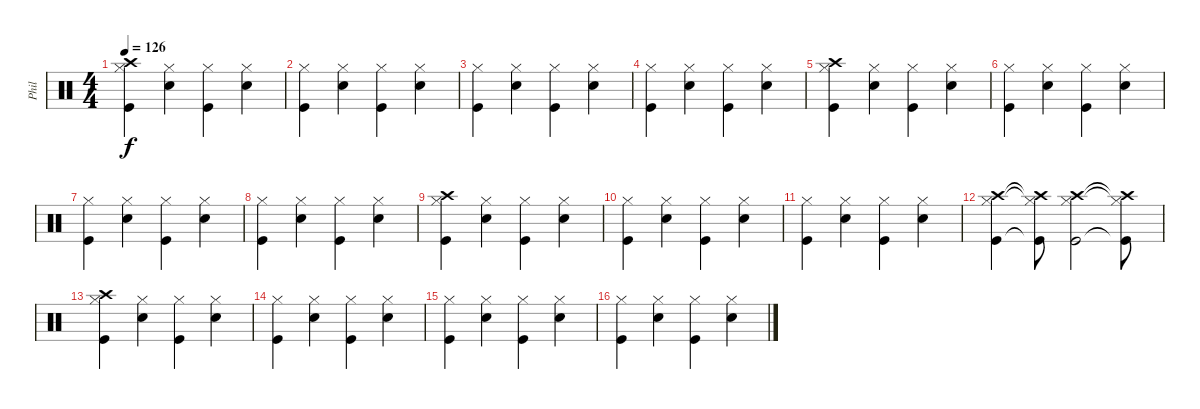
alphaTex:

\track ("Phil" "Phil") {instrument percussion}
\staff {score}
\articulation defaults
\ts (4 4)
\tempo 126
\clef neutral
\ks c
("Hi-Hat (closed)" "Crash high (hit)" "Kick (hit)").4{dy f} ("Hi-Hat (closed)" "Snare (hit) 2").4 ("Hi-Hat (closed)" "Kick (hit)").4 ("Hi-Hat (closed)" "Snare (hit) 2").4 |
("Hi-Hat (closed)" "Kick (hit)").4 ("Hi-Hat (closed)" "Snare (hit) 2").4 ("Hi-Hat (closed)" "Kick (hit)").4 ("Hi-Hat (closed)" "Snare (hit) 2").4 |
("Hi-Hat (closed)" "Kick (hit)").4 ("Hi-Hat (closed)" "Snare (hit) 2").4 ("Hi-Hat (closed)" "Kick (hit)").4 ("Hi-Hat (closed)" "Snare (hit) 2").4 |
("Hi-Hat (closed)" "Kick (hit)").4 ("Hi-Hat (closed)" "Snare (hit) 2").4 ("Hi-Hat (closed)" "Kick (hit)").4 ("Hi-Hat (closed)" "Snare (hit) 2").4 |
("Hi-Hat (closed)" "Crash high (hit)" "Kick (hit)").4 ("Hi-Hat (closed)" "Snare (hit) 2").4 ("Hi-Hat (closed)" "Kick (hit)").4 ("Hi-Hat (closed)" "Snare (hit) 2").4 |
("Hi-Hat (closed)" "Kick (hit)").4 ("Hi-Hat (closed)" "Snare (hit) 2").4 ("Hi-Hat (closed)" "Kick (hit)").4 ("Hi-Hat (closed)" "Snare (hit) 2").4 |
("Hi-Hat (closed)" "Kick (hit)").4 ("Hi-Hat (closed)" "Snare (hit) 2").4 ("Hi-Hat (closed)" "Kick (hit)").4 ("Hi-Hat (closed)" "Snare (hit) 2").4 |
("Hi-Hat (closed)" "Kick (hit)").4 ("Hi-Hat (closed)" "Snare (hit) 2").4 ("Hi-Hat (closed)" "Kick (hit)").4 ("Hi-Hat (closed)" "Snare (hit) 2").4 |
("Hi-Hat (closed)" "Crash high (hit)" "Kick (hit)").4 ("Hi-Hat (closed)" "Snare (hit) 2").4 ("Hi-Hat (closed)" "Kick (hit)").4 ("Hi-Hat (closed)" "Snare (hit) 2").4 |
("Hi-Hat (closed)" "Kick (hit)").4 ("Hi-Hat (closed)" "Snare (hit) 2").4 ("Hi-Hat (closed)" "Kick (hit)").4 ("Hi-Hat (closed)" "Snare (hit) 2").4 |
("Hi-Hat (closed)" "Kick (hit)").4 ("Hi-Hat (closed)" "Snare (hit) 2").4 ("Hi-Hat (closed)" "Kick (hit)").4 ("Hi-Hat (closed)" "Snare (hit) 2").4 |
("Hi-Hat (closed)" "Crash high (hit)" "Kick (hit)").4 ("Hi-Hat (closed)"{t} "Crash high (hit)"{t} "Kick (hit)"{t}).8 ("Hi-Hat (closed)" "Crash high (hit)" "Kick (hit)").2 ("Hi-Hat (closed)"{t} "Crash high (hit)"{t} "Kick (hit)"{t}).8 |
("Hi-Hat (closed)" "Crash high (hit)" "Kick (hit)").4 ("Hi-Hat (closed)" "Snare (hit) 2").4 ("Hi-Hat (closed)" "Kick (hit)").4 ("Hi-Hat (closed)" "Snare (hit) 2").4 |
("Hi-Hat (closed)" "Kick (hit)").4 ("Hi-Hat (closed)" "Snare (hit) 2").4 ("Hi-Hat (closed)" "Kick (hit)").4 ("Hi-Hat (closed)" "Snare (hit) 2").4 |
("Hi-Hat (closed)" "Kick (hit)").4 ("Hi-Hat (closed)" "Snare (hit) 2").4 ("Hi-Hat (closed)" "Kick (hit)").4 ("Hi-Hat (closed)" "Snare (hit) 2").4 |
("Hi-Hat (closed)" "Kick (hit)").4 ("Hi-Hat (closed)" "Snare (hit) 2").4 ("Hi-Hat (closed)" "Kick (hit)").4 ("Hi-Hat (closed)" "Snare (hit) 2").4
